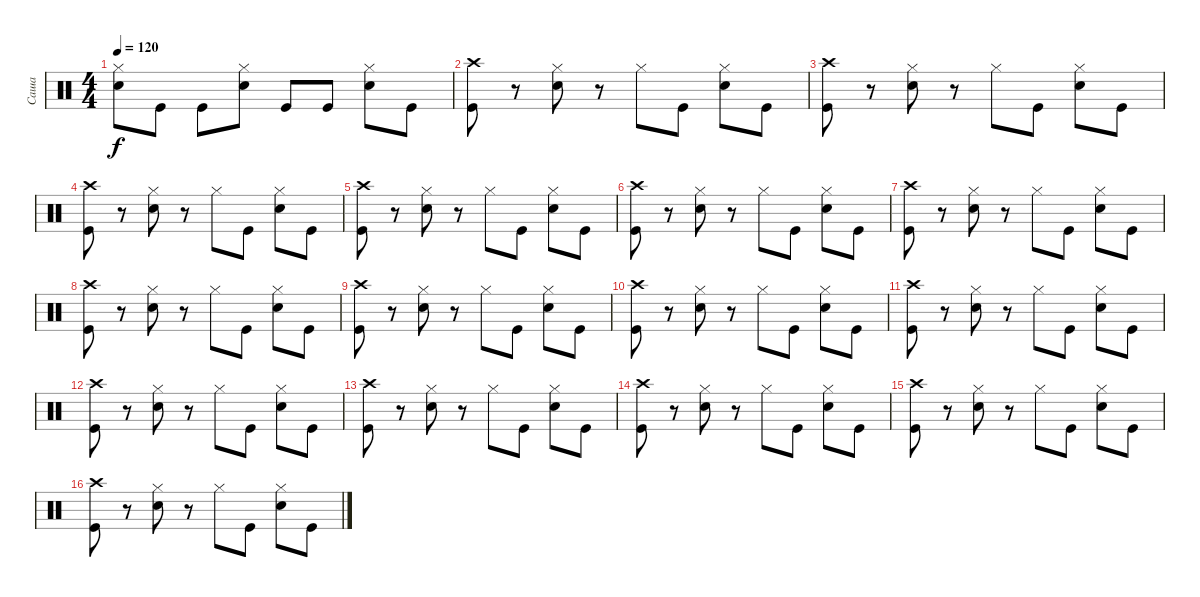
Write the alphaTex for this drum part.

\track ("Саша" "Саша") {instrument percussion}
\staff {score}
\articulation defaults
\ts (4 4)
\tempo 120
\clef neutral
\ks c
("Hi-Hat (closed)" "Snare (hit) 2").8{dy f} "Kick (hit)".8 "Kick (hit)".8 ("Hi-Hat (closed)" "Snare (hit) 2").8 "Kick (hit)".8 "Kick (hit)".8 ("Hi-Hat (closed)" "Snare (hit) 2").8 "Kick (hit)".8 |
("Crash high (hit)" "Kick (hit)").8 r.8 ("Hi-Hat (closed)" "Snare (hit) 2").8 r.8 "Hi-Hat (closed)".8 "Kick (hit)".8 ("Hi-Hat (closed)" "Snare (hit) 2").8 "Kick (hit)".8 |
("Crash high (hit)" "Kick (hit)").8 r.8 ("Hi-Hat (closed)" "Snare (hit) 2").8 r.8 "Hi-Hat (closed)".8 "Kick (hit)".8 ("Hi-Hat (closed)" "Snare (hit) 2").8 "Kick (hit)".8 |
("Crash high (hit)" "Kick (hit)").8 r.8 ("Hi-Hat (closed)" "Snare (hit) 2").8 r.8 "Hi-Hat (closed)".8 "Kick (hit)".8 ("Hi-Hat (closed)" "Snare (hit) 2").8 "Kick (hit)".8 |
("Crash high (hit)" "Kick (hit)").8 r.8 ("Hi-Hat (closed)" "Snare (hit) 2").8 r.8 "Hi-Hat (closed)".8 "Kick (hit)".8 ("Hi-Hat (closed)" "Snare (hit) 2").8 "Kick (hit)".8 |
("Crash high (hit)" "Kick (hit)").8 r.8 ("Hi-Hat (closed)" "Snare (hit) 2").8 r.8 "Hi-Hat (closed)".8 "Kick (hit)".8 ("Hi-Hat (closed)" "Snare (hit) 2").8 "Kick (hit)".8 |
("Crash high (hit)" "Kick (hit)").8 r.8 ("Hi-Hat (closed)" "Snare (hit) 2").8 r.8 "Hi-Hat (closed)".8 "Kick (hit)".8 ("Hi-Hat (closed)" "Snare (hit) 2").8 "Kick (hit)".8 |
("Crash high (hit)" "Kick (hit)").8 r.8 ("Hi-Hat (closed)" "Snare (hit) 2").8 r.8 "Hi-Hat (closed)".8 "Kick (hit)".8 ("Hi-Hat (closed)" "Snare (hit) 2").8 "Kick (hit)".8 |
("Crash high (hit)" "Kick (hit)").8 r.8 ("Hi-Hat (closed)" "Snare (hit) 2").8 r.8 "Hi-Hat (closed)".8 "Kick (hit)".8 ("Hi-Hat (closed)" "Snare (hit) 2").8 "Kick (hit)".8 |
("Crash high (hit)" "Kick (hit)").8 r.8 ("Hi-Hat (closed)" "Snare (hit) 2").8 r.8 "Hi-Hat (closed)".8 "Kick (hit)".8 ("Hi-Hat (closed)" "Snare (hit) 2").8 "Kick (hit)".8 |
("Crash high (hit)" "Kick (hit)").8 r.8 ("Hi-Hat (closed)" "Snare (hit) 2").8 r.8 "Hi-Hat (closed)".8 "Kick (hit)".8 ("Hi-Hat (closed)" "Snare (hit) 2").8 "Kick (hit)".8 |
("Crash high (hit)" "Kick (hit)").8 r.8 ("Hi-Hat (closed)" "Snare (hit) 2").8 r.8 "Hi-Hat (closed)".8 "Kick (hit)".8 ("Hi-Hat (closed)" "Snare (hit) 2").8 "Kick (hit)".8 |
("Crash high (hit)" "Kick (hit)").8 r.8 ("Hi-Hat (closed)" "Snare (hit) 2").8 r.8 "Hi-Hat (closed)".8 "Kick (hit)".8 ("Hi-Hat (closed)" "Snare (hit) 2").8 "Kick (hit)".8 |
("Crash high (hit)" "Kick (hit)").8 r.8 ("Hi-Hat (closed)" "Snare (hit) 2").8 r.8 "Hi-Hat (closed)".8 "Kick (hit)".8 ("Hi-Hat (closed)" "Snare (hit) 2").8 "Kick (hit)".8 |
("Crash high (hit)" "Kick (hit)").8 r.8 ("Hi-Hat (closed)" "Snare (hit) 2").8 r.8 "Hi-Hat (closed)".8 "Kick (hit)".8 ("Hi-Hat (closed)" "Snare (hit) 2").8 "Kick (hit)".8 |
("Crash high (hit)" "Kick (hit)").8 r.8 ("Hi-Hat (closed)" "Snare (hit) 2").8 r.8 "Hi-Hat (closed)".8 "Kick (hit)".8 ("Hi-Hat (closed)" "Snare (hit) 2").8 "Kick (hit)".8
